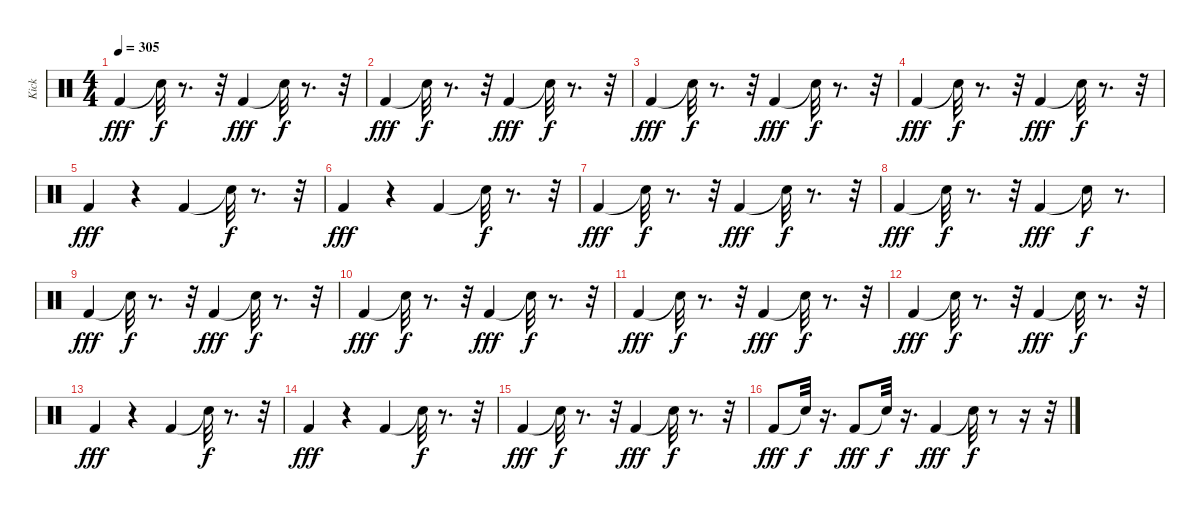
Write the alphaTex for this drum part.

\track ("Kick" "Kick") {instrument percussion}
\staff {score}
\articulation defaults
\ts (4 4)
\tempo 305
\clef neutral
\ks c "Kick (hit) 2".4{dy fff} "Snare (hit)"{t}.32{dy f}
r.8{d} r.32 "Kick (hit) 2".4{dy fff} "Snare (hit)"{t}.32{dy f} r.8{d} r.32 |
"Kick (hit) 2".4{dy fff} "Snare (hit)"{t}.32{dy f} r.8{d} r.32 "Kick (hit) 2".4{dy fff} "Snare (hit)"{t}.32{dy f} r.8{d} r.32 |
"Kick (hit) 2".4{dy fff} "Snare (hit)"{t}.32{dy f} r.8{d} r.32 "Kick (hit) 2".4{dy fff} "Snare (hit)"{t}.32{dy f} r.8{d} r.32 |
"Kick (hit) 2".4{dy fff} "Snare (hit)"{t}.32{dy f} r.8{d} r.32 "Kick (hit) 2".4{dy fff} "Snare (hit)"{t}.32{dy f} r.8{d} r.32 |
"Kick (hit) 2".4{dy fff} r.4 "Kick (hit) 2".4 "Snare (hit)"{t}.32{dy f} r.8{d} r.32 |
"Kick (hit) 2".4{dy fff} r.4 "Kick (hit) 2".4 "Snare (hit)"{t}.32{dy f} r.8{d} r.32 |
"Kick (hit) 2".4{dy fff} "Snare (hit)"{t}.32{dy f} r.8{d} r.32 "Kick (hit) 2".4{dy fff} "Snare (hit)"{t}.32{dy f} r.8{d} r.32 |
"Kick (hit) 2".4{dy fff} "Snare (hit)"{t}.32{dy f} r.8{d} r.32 "Kick (hit) 2".4{dy fff} "Snare (hit)"{t}.16{dy f} r.8{d} |
"Kick (hit) 2".4{dy fff} "Snare (hit)"{t}.32{dy f} r.8{d} r.32 "Kick (hit) 2".4{dy fff} "Snare (hit)"{t}.32{dy f} r.8{d} r.32 |
"Kick (hit) 2".4{dy fff} "Snare (hit)"{t}.32{dy f} r.8{d} r.32 "Kick (hit) 2".4{dy fff} "Snare (hit)"{t}.32{dy f} r.8{d} r.32 |
"Kick (hit) 2".4{dy fff} "Snare (hit)"{t}.32{dy f} r.8{d} r.32 "Kick (hit) 2".4{dy fff} "Snare (hit)"{t}.32{dy f} r.8{d} r.32 |
"Kick (hit) 2".4{dy fff} "Snare (hit)"{t}.32{dy f} r.8{d} r.32 "Kick (hit) 2".4{dy fff} "Snare (hit)"{t}.32{dy f} r.8{d} r.32 |
"Kick (hit) 2".4{dy fff} r.4 "Kick (hit) 2".4 "Snare (hit)"{t}.32{dy f} r.8{d} r.32 |
"Kick (hit) 2".4{dy fff} r.4 "Kick (hit) 2".4 "Snare (hit)"{t}.32{dy f} r.8{d} r.32 |
"Kick (hit) 2".4{dy fff} "Snare (hit)"{t}.32{dy f} r.8{d} r.32 "Kick (hit) 2".4{dy fff} "Snare (hit)"{t}.32{dy f} r.8{d} r.32 |
"Kick (hit) 2".8{dy fff} "Snare (hit)"{t}.32{dy f} r.16{d} "Kick (hit) 2".8{dy fff} "Snare (hit)"{t}.32{dy f} r.16{d} "Kick (hit) 2".4{dy fff} "Snare (hit)"{t}.32{dy f} r.8 r.16 r.32
